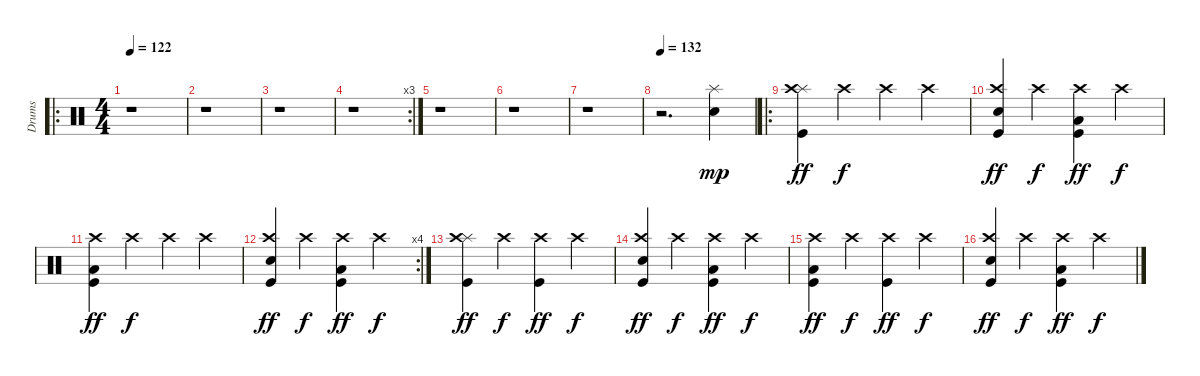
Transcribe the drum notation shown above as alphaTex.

\track ("Drums" "Drums") {instrument percussion}
\staff {score}
\articulation defaults
\ro
\ts (4 4)
\tempo 122
\clef neutral
\ks c
r.1{dy f} |
r.1 |
r.1 |
\rc 3
r.1 |
r.1 |
r.1 |
r.1 |
\tempo 132
r.2{d} ("Splash (hit)" "Electric Snare (hit)").4{dy mp} |
\ro
("Splash (hit)" "Crash high (hit)" "Kick (hit)").4{dy ff} "Crash high (hit)".4{dy f} "Crash high (hit)".4 "Crash high (hit)".4 |
("Crash high (hit)" "Electric Snare (hit)" "Kick (hit)").4{dy ff} "Crash high (hit)".4{dy f} ("Crash high (hit)" "Low Floor Tom (hit)" "Kick (hit)").4{dy ff} "Crash high (hit)".4{dy f} |
("Crash high (hit)" "Low Floor Tom (hit)" "Kick (hit)").4{dy ff} "Crash high (hit)".4{dy f} "Crash high (hit)".4 "Crash high (hit)".4 |
\rc 4
("Crash high (hit)" "Electric Snare (hit)" "Kick (hit)").4{dy ff} "Crash high (hit)".4{dy f} ("Crash high (hit)" "Low Floor Tom (hit)" "Kick (hit)").4{dy ff} "Crash high (hit)".4{dy f} |
("Splash (hit)" "Crash high (hit)" "Kick (hit)").4{dy ff} "Crash high (hit)".4{dy f} ("Crash high (hit)" "Kick (hit)").4{dy ff} "Crash high (hit)".4{dy f} |
("Crash high (hit)" "Electric Snare (hit)" "Kick (hit)").4{dy ff} "Crash high (hit)".4{dy f} ("Crash high (hit)" "Low Floor Tom (hit)" "Kick (hit)").4{dy ff} "Crash high (hit)".4{dy f} |
("Crash high (hit)" "Low Floor Tom (hit)" "Kick (hit)").4{dy ff} "Crash high (hit)".4{dy f} ("Crash high (hit)" "Kick (hit)").4{dy ff} "Crash high (hit)".4{dy f} |
("Crash high (hit)" "Electric Snare (hit)" "Kick (hit)").4{dy ff} "Crash high (hit)".4{dy f} ("Crash high (hit)" "Low Floor Tom (hit)" "Kick (hit)").4{dy ff} "Crash high (hit)".4{dy f}
